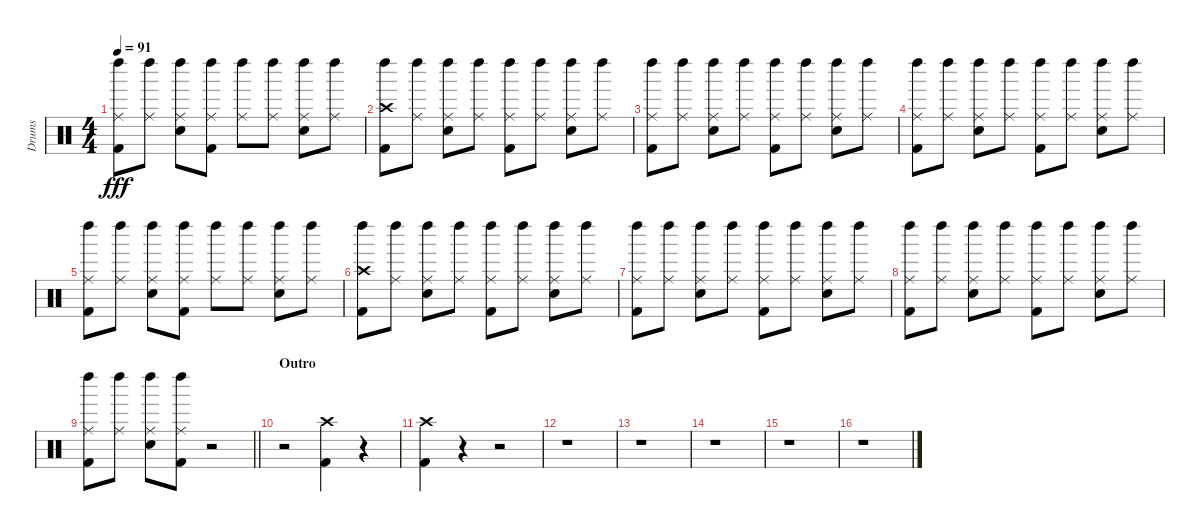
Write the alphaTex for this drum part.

\track ("Drums" "Drums") {instrument percussion}
\staff {score}
\articulation defaults
\ts (4 4)
\tempo 91
\clef neutral
\ks c
("Left Maraca (hit)" "Ride (middle)" "Kick (hit) 2").8{dy fff} ("Left Maraca (hit)" "Ride (middle)").8 ("Left Maraca (hit)" "Ride (middle)" "Snare (hit) 2").8 ("Left Maraca (hit)" "Ride (middle)" "Kick (hit) 2").8 ("Left Maraca (hit)" "Ride (middle)").8 ("Left Maraca (hit)" "Ride (middle)").8 ("Left Maraca (hit)" "Ride (middle)" "Snare (hit) 2").8 ("Left Maraca (hit)" "Ride (middle)").8 |
("Left Maraca (hit)" "Crash high (hit)" "Kick (hit) 2").8 ("Left Maraca (hit)" "Ride (middle)").8 ("Left Maraca (hit)" "Ride (middle)" "Snare (hit) 2").8 ("Left Maraca (hit)" "Ride (middle)").8 ("Left Maraca (hit)" "Ride (middle)" "Kick (hit) 2").8 ("Left Maraca (hit)" "Ride (middle)").8 ("Left Maraca (hit)" "Ride (middle)" "Snare (hit) 2").8 ("Left Maraca (hit)" "Ride (middle)").8 |
("Left Maraca (hit)" "Ride (middle)" "Kick (hit) 2").8 ("Left Maraca (hit)" "Ride (middle)").8 ("Left Maraca (hit)" "Ride (middle)" "Snare (hit) 2").8 ("Left Maraca (hit)" "Ride (middle)").8 ("Left Maraca (hit)" "Ride (middle)" "Kick (hit) 2").8 ("Left Maraca (hit)" "Ride (middle)").8 ("Left Maraca (hit)" "Ride (middle)" "Snare (hit) 2").8 ("Left Maraca (hit)" "Ride (middle)").8 |
("Left Maraca (hit)" "Ride (middle)" "Kick (hit) 2").8 ("Left Maraca (hit)" "Ride (middle)").8 ("Left Maraca (hit)" "Ride (middle)" "Snare (hit) 2").8 ("Left Maraca (hit)" "Ride (middle)").8 ("Left Maraca (hit)" "Ride (middle)" "Kick (hit) 2").8 ("Left Maraca (hit)" "Ride (middle)").8 ("Left Maraca (hit)" "Ride (middle)" "Snare (hit) 2").8 ("Left Maraca (hit)" "Ride (middle)").8 |
("Left Maraca (hit)" "Ride (middle)" "Kick (hit) 2").8 ("Left Maraca (hit)" "Ride (middle)").8 ("Left Maraca (hit)" "Ride (middle)" "Snare (hit) 2").8 ("Left Maraca (hit)" "Ride (middle)" "Kick (hit) 2").8 ("Left Maraca (hit)" "Ride (middle)").8 ("Left Maraca (hit)" "Ride (middle)").8 ("Left Maraca (hit)" "Ride (middle)" "Snare (hit) 2").8 ("Left Maraca (hit)" "Ride (middle)").8 |
("Left Maraca (hit)" "Crash high (hit)" "Kick (hit) 2").8 ("Left Maraca (hit)" "Ride (middle)").8 ("Left Maraca (hit)" "Ride (middle)" "Snare (hit) 2").8 ("Left Maraca (hit)" "Ride (middle)").8 ("Left Maraca (hit)" "Ride (middle)" "Kick (hit) 2").8 ("Left Maraca (hit)" "Ride (middle)").8 ("Left Maraca (hit)" "Ride (middle)" "Snare (hit) 2").8 ("Left Maraca (hit)" "Ride (middle)").8 |
("Left Maraca (hit)" "Ride (middle)" "Kick (hit) 2").8 ("Left Maraca (hit)" "Ride (middle)").8 ("Left Maraca (hit)" "Ride (middle)" "Snare (hit) 2").8 ("Left Maraca (hit)" "Ride (middle)").8 ("Left Maraca (hit)" "Ride (middle)" "Kick (hit) 2").8 ("Left Maraca (hit)" "Ride (middle)").8 ("Left Maraca (hit)" "Ride (middle)" "Snare (hit) 2").8 ("Left Maraca (hit)" "Ride (middle)").8 |
("Left Maraca (hit)" "Ride (middle)" "Kick (hit) 2").8 ("Left Maraca (hit)" "Ride (middle)").8 ("Left Maraca (hit)" "Ride (middle)" "Snare (hit) 2").8 ("Left Maraca (hit)" "Ride (middle)").8 ("Left Maraca (hit)" "Ride (middle)" "Kick (hit) 2").8 ("Left Maraca (hit)" "Ride (middle)").8 ("Left Maraca (hit)" "Ride (middle)" "Snare (hit) 2").8 ("Left Maraca (hit)" "Ride (middle)").8 |
\barLineRight lightlight
("Left Maraca (hit)" "Ride (middle)" "Kick (hit) 2").8 ("Left Maraca (hit)" "Ride (middle)").8 ("Left Maraca (hit)" "Ride (middle)" "Snare (hit) 2").8 ("Left Maraca (hit)" "Ride (middle)" "Kick (hit) 2").8 r.2 |
\section ("" "Outro")
r.2 ("Crash high (hit)" "Kick (hit) 2").4 r.4 |
("Crash high (hit)" "Kick (hit) 2").4 r.4 r.2 |
r.1 |
r.1 |
r.1 |
r.1 |
r.1
